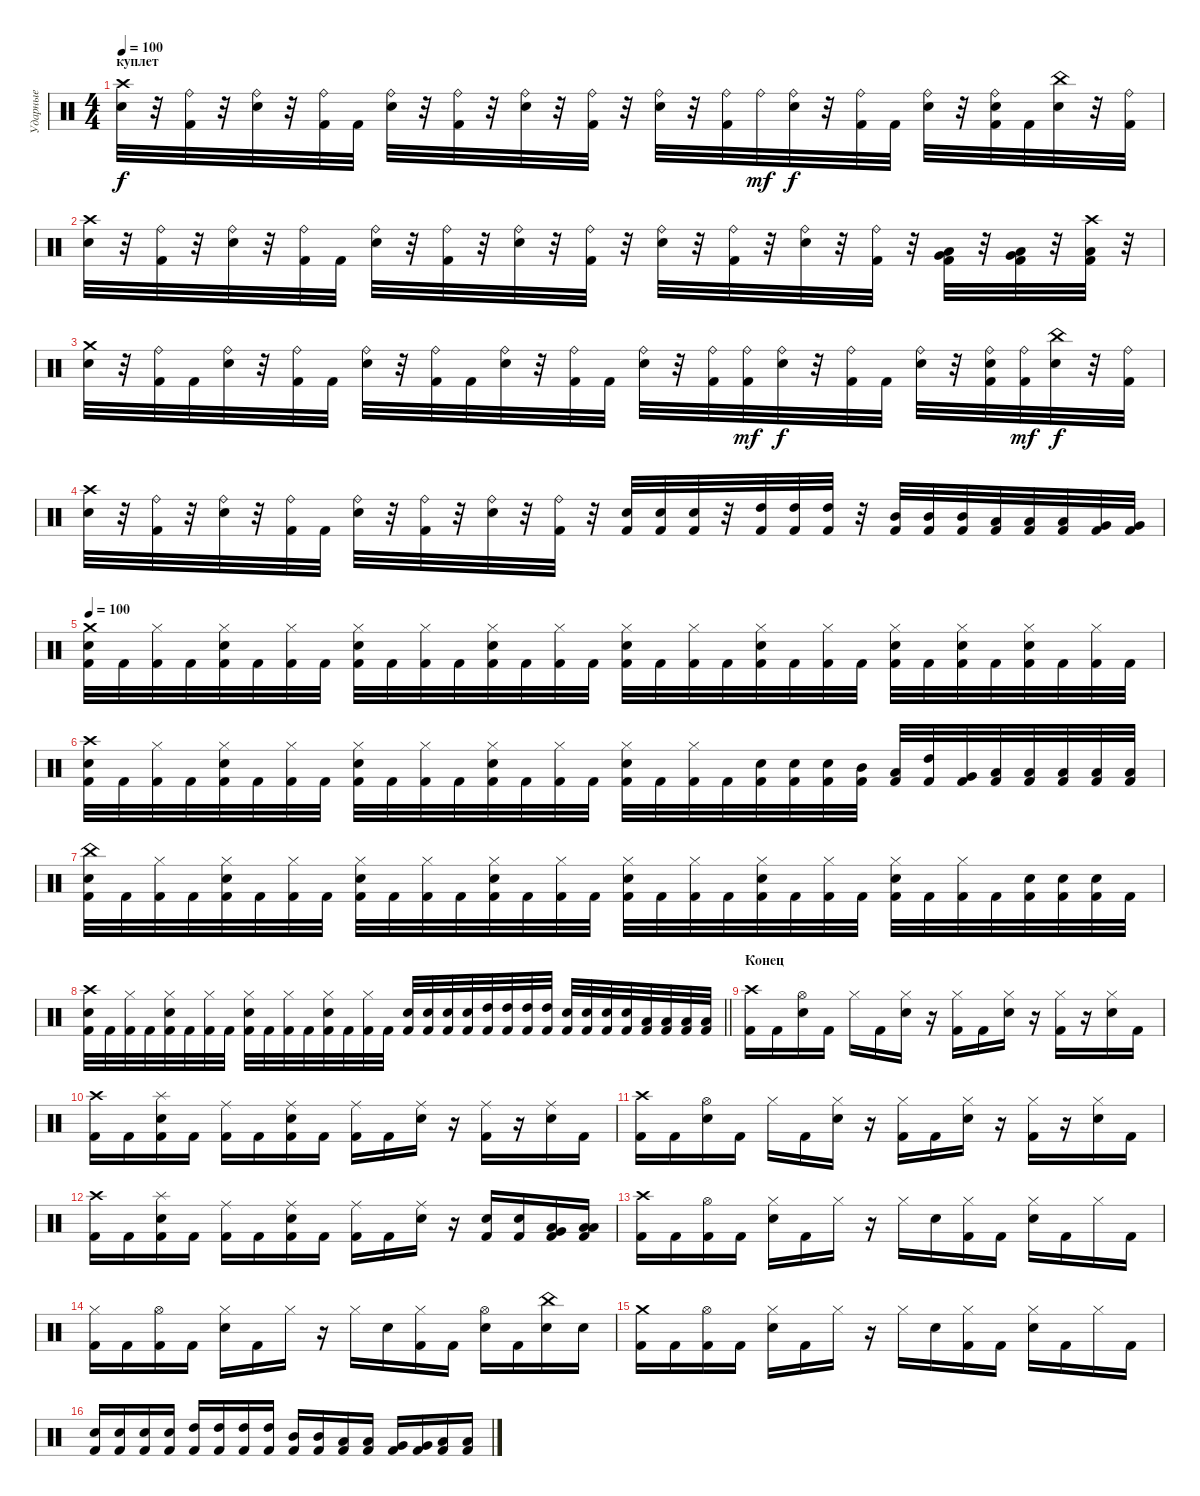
\track ("Ударные" "Ударные") {instrument percussion}
\staff {score}
\articulation defaults
\ts (4 4)
\section ("" "куплет ")
\tempo 100
\clef neutral
\ks c
("Crash high (hit)" "Snare (hit) 2").32{dy f} r.32 ("Ride (bell)" "Kick (hit) 2").32 r.32 ("Ride (bell)" "Snare (hit) 2").32 r.32 ("Ride (bell)" "Kick (hit) 2").32 "Kick (hit) 2".32 ("Ride (bell)" "Snare (hit) 2").32 r.32 ("Ride (bell)" "Kick (hit) 2").32 r.32 ("Ride (bell)" "Snare (hit) 2").32 r.32 ("Ride (bell)" "Kick (hit) 2").32 r.32 ("Ride (bell)" "Snare (hit) 2").32 r.32 ("Ride (bell)" "Kick (hit) 2").32 "Ride (bell)".32{dy mf} ("Ride (bell)" "Snare (hit) 2").32{dy f} r.32 ("Ride (bell)" "Kick (hit) 2").32 "Kick (hit) 2".32 ("Ride (bell)" "Snare (hit) 2").32 r.32 ("Ride (bell)" "Snare (hit) 2" "Kick (hit) 2").32 "Kick (hit) 2".32 ("China (hit)" "Snare (hit) 2").32 r.32 ("Ride (bell)" "Kick (hit) 2").32 |
("Crash high (hit)" "Snare (hit) 2").32 r.32 ("Ride (bell)" "Kick (hit) 2").32 r.32 ("Ride (bell)" "Snare (hit) 2").32 r.32 ("Ride (bell)" "Kick (hit) 2").32 "Kick (hit) 2".32 ("Ride (bell)" "Snare (hit) 2").32 r.32 ("Ride (bell)" "Kick (hit) 2").32 r.32 ("Ride (bell)" "Snare (hit) 2").32 r.32 ("Ride (bell)" "Kick (hit) 2").32 r.32 ("Ride (bell)" "Snare (hit) 2").32 r.32 ("Ride (bell)" "Kick (hit) 2").32 r.32 ("Ride (bell)" "Snare (hit) 2").32 r.32 ("Ride (bell)" "Kick (hit) 2").32 r.32 ("Low Tom (hit)" "Very Low Tom (hit)" "Kick (hit) 2").32 r.32 ("Low Tom (hit)" "Very Low Tom (hit)" "Kick (hit) 2").32 r.32 ("Crash high (hit)" "Low Floor Tom (hit)" "Kick (hit) 2").32 r.32 |
("Crash medium (hit)" "Snare (hit) 2").32 r.32 ("Ride (bell)" "Kick (hit) 2").32 "Kick (hit) 2".32 ("Ride (bell)" "Snare (hit) 2").32 r.32 ("Ride (bell)" "Kick (hit) 2").32 "Kick (hit) 2".32 ("Ride (bell)" "Snare (hit) 2").32 r.32 ("Ride (bell)" "Kick (hit) 2").32 "Kick (hit) 2".32 ("Ride (bell)" "Snare (hit) 2").32 r.32 ("Ride (bell)" "Kick (hit) 2").32 "Kick (hit) 2".32 ("Ride (bell)" "Snare (hit) 2").32 r.32 ("Ride (bell)" "Kick (hit) 2").32 ("Ride (bell)" "Kick (hit) 2").32{dy mf} ("Ride (bell)" "Snare (hit) 2").32{dy f} r.32 ("Ride (bell)" "Kick (hit) 2").32 "Kick (hit) 2".32 ("Ride (bell)" "Snare (hit) 2").32 r.32 ("Ride (bell)" "Snare (hit) 2" "Kick (hit) 2").32 ("Ride (bell)" "Kick (hit) 2").32{dy mf} ("China (hit)" "Snare (hit) 2").32{dy f} r.32 ("Ride (bell)" "Kick (hit) 2").32 |
("Crash high (hit)" "Snare (hit) 2").32 r.32 ("Ride (bell)" "Kick (hit) 2").32 r.32 ("Ride (bell)" "Snare (hit) 2").32 r.32 ("Ride (bell)" "Kick (hit) 2").32 "Kick (hit) 2".32 ("Ride (bell)" "Snare (hit) 2").32 r.32 ("Ride (bell)" "Kick (hit) 2").32 r.32 ("Ride (bell)" "Snare (hit) 2").32 r.32 ("Ride (bell)" "Kick (hit) 2").32 r.32 ("Snare (hit) 2" "Kick (hit) 2").32 ("Snare (hit) 2" "Kick (hit) 2").32 ("Snare (hit) 2" "Kick (hit) 2").32 r.32 ("High Tom (hit)" "Kick (hit) 2").32 ("High Tom (hit)" "Kick (hit) 2").32 ("High Tom (hit)" "Kick (hit) 2").32 r.32 ("Mid Tom (hit)" "Kick (hit) 2").32 ("Mid Tom (hit)" "Kick (hit) 2").32 ("Mid Tom (hit)" "Kick (hit) 2").32 ("Low Tom (hit)" "Kick (hit) 2").32 ("Low Tom (hit)" "Kick (hit) 2").32 ("Low Tom (hit)" "Kick (hit) 2").32 ("Very Low Tom (hit)" "Kick (hit) 2").32 ("Very Low Tom (hit)" "Kick (hit) 2").32 |
\tempo 100
("Crash medium (hit)" "Snare (hit) 2" "Kick (hit) 2").32 "Kick (hit) 2".32 ("Hi-Hat (closed)" "Kick (hit) 2").32 "Kick (hit) 2".32 ("Hi-Hat (closed)" "Snare (hit) 2" "Kick (hit) 2").32 "Kick (hit) 2".32 ("Hi-Hat (closed)" "Kick (hit) 2").32 "Kick (hit) 2".32 ("Hi-Hat (closed)" "Snare (hit) 2" "Kick (hit) 2").32 "Kick (hit) 2".32 ("Hi-Hat (closed)" "Kick (hit) 2").32 "Kick (hit) 2".32 ("Hi-Hat (closed)" "Snare (hit) 2" "Kick (hit) 2").32 "Kick (hit) 2".32 ("Hi-Hat (closed)" "Kick (hit) 2").32 "Kick (hit) 2".32 ("Hi-Hat (closed)" "Snare (hit) 2" "Kick (hit) 2").32 "Kick (hit) 2".32 ("Hi-Hat (closed)" "Kick (hit) 2").32 "Kick (hit) 2".32 ("Hi-Hat (closed)" "Snare (hit) 2" "Kick (hit) 2").32 "Kick (hit) 2".32 ("Hi-Hat (closed)" "Kick (hit) 2").32 "Kick (hit) 2".32 ("Hi-Hat (closed)" "Snare (hit) 2" "Kick (hit) 2").32 "Kick (hit) 2".32 ("Hi-Hat (closed)" "Snare (hit) 2" "Kick (hit) 2").32 "Kick (hit) 2".32 ("Hi-Hat (closed)" "Snare (hit) 2" "Kick (hit) 2").32 "Kick (hit) 2".32 ("Hi-Hat (closed)" "Kick (hit) 2").32 "Kick (hit) 2".32 |
("Crash high (hit)" "Snare (hit) 2" "Kick (hit) 2").32 "Kick (hit) 2".32 ("Hi-Hat (closed)" "Kick (hit) 2").32 "Kick (hit) 2".32 ("Hi-Hat (closed)" "Snare (hit) 2" "Kick (hit) 2").32 "Kick (hit) 2".32 ("Hi-Hat (closed)" "Kick (hit) 2").32 "Kick (hit) 2".32 ("Hi-Hat (closed)" "Snare (hit) 2" "Kick (hit) 2").32 "Kick (hit) 2".32 ("Hi-Hat (closed)" "Kick (hit) 2").32 "Kick (hit) 2".32 ("Hi-Hat (closed)" "Snare (hit) 2" "Kick (hit) 2").32 "Kick (hit) 2".32 ("Hi-Hat (closed)" "Kick (hit) 2").32 "Kick (hit) 2".32 ("Hi-Hat (closed)" "Snare (hit) 2" "Kick (hit) 2").32 "Kick (hit) 2".32 ("Hi-Hat (closed)" "Kick (hit) 2").32 "Kick (hit) 2".32 ("Snare (hit) 2" "Kick (hit) 2").32 ("Snare (hit) 2" "Kick (hit) 2").32 ("Snare (hit) 2" "Kick (hit) 2").32 ("Mid Tom (hit)" "Kick (hit) 2").32 ("Low Tom (hit)" "Kick (hit) 2").32 ("High Tom (hit)" "Kick (hit) 2").32 ("Very Low Tom (hit)" "Kick (hit) 2").32 ("Low Floor Tom (hit)" "Kick (hit) 2").32 ("Low Tom (hit)" "Kick (hit) 2").32 ("Low Tom (hit)" "Kick (hit) 2").32 ("Low Tom (hit)" "Kick (hit) 2").32 ("Low Tom (hit)" "Kick (hit) 2").32 |
("China (hit)" "Snare (hit) 2" "Kick (hit) 2").32 "Kick (hit) 2".32 ("Hi-Hat (closed)" "Kick (hit) 2").32 "Kick (hit) 2".32 ("Hi-Hat (closed)" "Snare (hit) 2" "Kick (hit) 2").32 "Kick (hit) 2".32 ("Hi-Hat (closed)" "Kick (hit) 2").32 "Kick (hit) 2".32 ("Hi-Hat (closed)" "Snare (hit) 2" "Kick (hit) 2").32 "Kick (hit) 2".32 ("Hi-Hat (closed)" "Kick (hit) 2").32 "Kick (hit) 2".32 ("Hi-Hat (closed)" "Snare (hit) 2" "Kick (hit) 2").32 "Kick (hit) 2".32 ("Hi-Hat (closed)" "Kick (hit) 2").32 "Kick (hit) 2".32 ("Hi-Hat (closed)" "Snare (hit) 2" "Kick (hit) 2").32 "Kick (hit) 2".32 ("Hi-Hat (closed)" "Kick (hit) 2").32 "Kick (hit) 2".32 ("Hi-Hat (closed)" "Snare (hit) 2" "Kick (hit) 2").32 "Kick (hit) 2".32 ("Hi-Hat (closed)" "Kick (hit) 2").32 "Kick (hit) 2".32 ("Hi-Hat (closed)" "Snare (hit) 2" "Kick (hit) 2").32 "Kick (hit) 2".32 ("Hi-Hat (closed)" "Kick (hit) 2").32 "Kick (hit) 2".32 ("Snare (hit) 2" "Kick (hit) 2").32 ("Snare (hit) 2" "Kick (hit) 2").32 ("Snare (hit) 2" "Kick (hit) 2").32 "Kick (hit) 2".32 |
\barLineRight lightlight
("Crash high (hit)" "Snare (hit) 2" "Kick (hit) 2").32 "Kick (hit) 2".32 ("Hi-Hat (closed)" "Kick (hit) 2").32 "Kick (hit) 2".32 ("Hi-Hat (closed)" "Snare (hit) 2" "Kick (hit) 2").32 "Kick (hit) 2".32 ("Hi-Hat (closed)" "Kick (hit) 2").32 "Kick (hit) 2".32 ("Hi-Hat (closed)" "Snare (hit) 2" "Kick (hit) 2").32 "Kick (hit) 2".32 ("Hi-Hat (closed)" "Kick (hit) 2").32 "Kick (hit) 2".32 ("Hi-Hat (closed)" "Snare (hit) 2" "Kick (hit) 2").32 "Kick (hit) 2".32 ("Hi-Hat (closed)" "Kick (hit) 2").32 "Kick (hit) 2".32 ("Snare (hit) 2" "Kick (hit) 2").32 ("Snare (hit) 2" "Kick (hit) 2").32 ("Snare (hit) 2" "Kick (hit) 2").32 ("Snare (hit) 2" "Kick (hit) 2").32 ("High Tom (hit)" "Kick (hit) 2").32 ("High Tom (hit)" "Kick (hit) 2").32 ("High Tom (hit)" "Kick (hit) 2").32 ("High Tom (hit)" "Kick (hit) 2").32 ("Snare (hit) 2" "Kick (hit) 2").32 ("Snare (hit) 2" "Kick (hit) 2").32 ("Snare (hit) 2" "Kick (hit) 2").32 ("Snare (hit) 2" "Kick (hit) 2").32 ("Low Tom (hit)" "Kick (hit) 2").32 ("Low Tom (hit)" "Kick (hit) 2").32 ("Low Floor Tom (hit)" "Kick (hit) 2").32 ("Low Floor Tom (hit)" "Kick (hit) 2").32 |
\section ("" "Конец")
("Crash high (hit)" "Kick (hit) 2").16 "Kick (hit) 2".16 ("Hi-Hat (open)" "Snare (hit) 2").16 "Kick (hit) 2".16 "Hi-Hat (closed)".16 "Kick (hit) 2".16 ("Hi-Hat (closed)" "Snare (hit) 2").16 r.16 ("Hi-Hat (closed)" "Kick (hit) 2").16 "Kick (hit) 2".16 ("Hi-Hat (closed)" "Snare (hit) 2").16 r.16 ("Hi-Hat (closed)" "Kick (hit) 2").16 r.16 ("Hi-Hat (closed)" "Snare (hit) 2").16 "Kick (hit) 2".16 |
("Crash high (hit)" "Kick (hit) 2").16 "Kick (hit) 2".16 ("Splash (hit)" "Snare (hit) 2" "Kick (hit) 2").16 "Kick (hit) 2".16 ("Ride (middle)" "Kick (hit) 2").16 "Kick (hit) 2".16 ("Ride (middle)" "Snare (hit) 2" "Kick (hit) 2").16 "Kick (hit) 2".16 ("Ride (middle)" "Kick (hit) 2").16 "Kick (hit) 2".16 ("Ride (middle)" "Snare (hit) 2").16 r.16 ("Ride (middle)" "Kick (hit) 2").16 r.16 ("Ride (middle)" "Snare (hit) 2").16 "Kick (hit) 2".16 |
("Crash high (hit)" "Kick (hit) 2").16 "Kick (hit) 2".16 ("Hi-Hat (open)" "Snare (hit) 2").16 "Kick (hit) 2".16 "Hi-Hat (closed)".16 "Kick (hit) 2".16 ("Hi-Hat (closed)" "Snare (hit) 2").16 r.16 ("Hi-Hat (closed)" "Kick (hit) 2").16 "Kick (hit) 2".16 ("Hi-Hat (closed)" "Snare (hit) 2").16 r.16 ("Hi-Hat (closed)" "Kick (hit) 2").16 r.16 ("Hi-Hat (closed)" "Snare (hit) 2").16 "Kick (hit) 2".16 |
("Crash high (hit)" "Kick (hit) 2").16 "Kick (hit) 2".16 ("Splash (hit)" "Snare (hit) 2" "Kick (hit) 2").16 "Kick (hit) 2".16 ("Ride (middle)" "Kick (hit) 2").16 "Kick (hit) 2".16 ("Ride (middle)" "Snare (hit) 2" "Kick (hit) 2").16 "Kick (hit) 2".16 ("Ride (middle)" "Kick (hit) 2").16 "Kick (hit) 2".16 ("Ride (middle)" "Snare (hit) 2").16 r.16 ("Snare (hit) 2" "Kick (hit) 2").16 ("Snare (hit) 2" "Kick (hit) 2").16 ("Low Tom (hit)" "Very Low Tom (hit)" "Kick (hit) 2").16 ("Low Tom (hit)" "Low Floor Tom (hit)" "Kick (hit) 2").16 |
("Crash high (hit)" "Kick (hit) 2").16 "Kick (hit) 2".16 ("Hi-Hat (open)" "Kick (hit) 2").16 "Kick (hit) 2".16 ("Hi-Hat (closed)" "Snare (hit) 2").16 "Kick (hit) 2".16 "Hi-Hat (closed)".16 r.16 "Hi-Hat (closed)".16 "Snare (hit) 2".16 ("Hi-Hat (closed)" "Kick (hit) 2").16 "Kick (hit) 2".16 ("Hi-Hat (closed)" "Snare (hit) 2").16 "Kick (hit) 2".16 "Hi-Hat (closed)".16 "Kick (hit) 2".16 |
("Hi-Hat (closed)" "Kick (hit) 2").16 "Kick (hit) 2".16 ("Hi-Hat (open)" "Kick (hit) 2").16 "Kick (hit) 2".16 ("Hi-Hat (closed)" "Snare (hit) 2").16 "Kick (hit) 2".16 "Hi-Hat (closed)".16 r.16 "Hi-Hat (closed)".16 "Snare (hit) 2".16 ("Hi-Hat (closed)" "Kick (hit) 2").16 "Kick (hit) 2".16 ("Hi-Hat (open)" "Snare (hit) 2").16 "Kick (hit) 2".16 ("China (hit)" "Snare (hit) 2").16 "Snare (hit) 2".16 |
("Crash medium (hit)" "Kick (hit) 2").16 "Kick (hit) 2".16 ("Hi-Hat (open)" "Kick (hit) 2").16 "Kick (hit) 2".16 ("Hi-Hat (closed)" "Snare (hit) 2").16 "Kick (hit) 2".16 "Hi-Hat (closed)".16 r.16 "Hi-Hat (closed)".16 "Snare (hit) 2".16 ("Hi-Hat (closed)" "Kick (hit) 2").16 "Kick (hit) 2".16 ("Hi-Hat (closed)" "Snare (hit) 2").16 "Kick (hit) 2".16 "Hi-Hat (closed)".16 "Kick (hit) 2".16 |
("Snare (hit) 2" "Kick (hit) 2").16 ("Snare (hit) 2" "Kick (hit) 2").16 ("Snare (hit) 2" "Kick (hit) 2").16 ("Snare (hit) 2" "Kick (hit) 2").16 ("High Tom (hit)" "Kick (hit) 2").16 ("High Tom (hit)" "Kick (hit) 2").16 ("High Tom (hit)" "Kick (hit) 2").16 ("High Tom (hit)" "Kick (hit) 2").16 ("Mid Tom (hit)" "Kick (hit) 2").16 ("Mid Tom (hit)" "Kick (hit) 2").16 ("Low Tom (hit)" "Kick (hit) 2").16 ("Low Tom (hit)" "Kick (hit) 2").16 ("Very Low Tom (hit)" "Kick (hit) 2").16 ("Very Low Tom (hit)" "Kick (hit) 2").16 ("Low Floor Tom (hit)" "Kick (hit) 2").16 ("Low Floor Tom (hit)" "Kick (hit) 2").16
